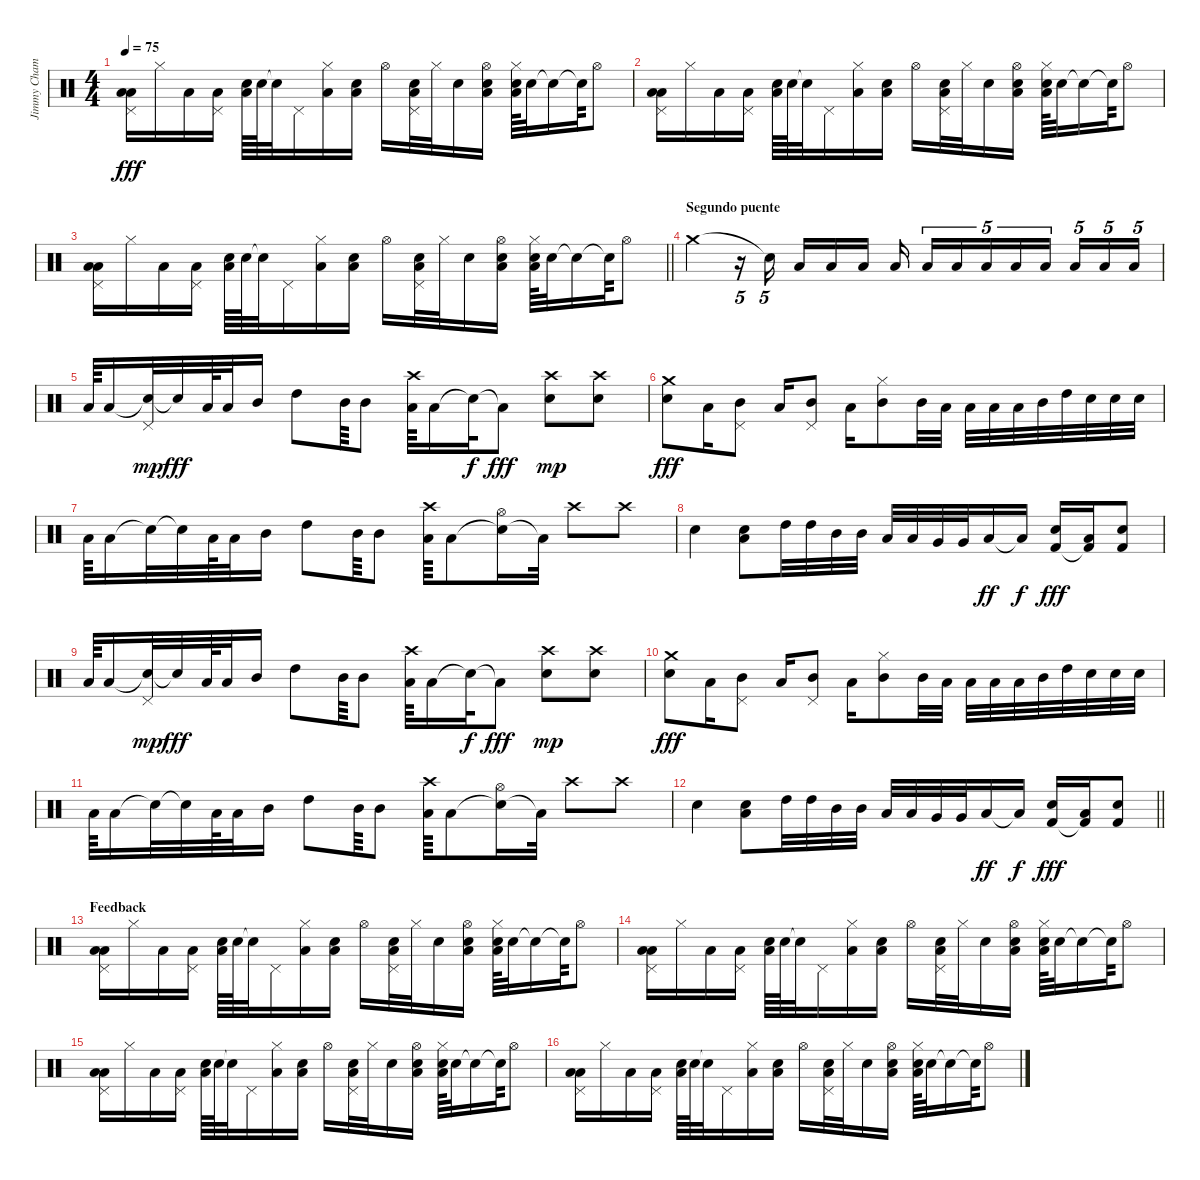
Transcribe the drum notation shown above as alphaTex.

\track ("Jimmy Chamberlin" "Jimmy Cham") {instrument percussion}
\staff {score}
\articulation defaults
\ts (4 4)
\tempo 75
\clef neutral
\ks c
("Low Floor Tom (hit)" "Low Tom (hit)" "Pedal Hi-Hat (hit)").16{dy fff} "Hi-Hat (closed)".16 "Low Floor Tom (hit)".16 ("Low Floor Tom (hit)" "Pedal Hi-Hat (hit)").16 ("Low Floor Tom (hit)" "Electric Snare (hit)").64 "Electric Snare (hit)".64 "Snare (hit)"{t}.32 "Pedal Hi-Hat (hit)".16 ("Low Floor Tom (hit)" "Hi-Hat (closed)").16 ("Low Floor Tom (hit)" "Electric Snare (hit)").16 "Hi-Hat (open)".16 ("Low Floor Tom (hit)" "Pedal Hi-Hat (hit)" "Electric Snare (hit)").32 "Hi-Hat (closed)".32 "Electric Snare (hit)".16 ("Low Floor Tom (hit)" "Hi-Hat (open)" "Snare (hit) 2").16 ("Low Floor Tom (hit)" "Hi-Hat (closed)" "Electric Snare (hit)").64 "Electric Snare (hit)".32 "Snare (hit)"{t}.16 "Snare (hit)"{t}.64 "Hi-Hat (open)".8 |
("Low Floor Tom (hit)" "Low Tom (hit)" "Pedal Hi-Hat (hit)").16 "Hi-Hat (closed)".16 "Low Floor Tom (hit)".16 ("Low Floor Tom (hit)" "Pedal Hi-Hat (hit)").16 ("Low Floor Tom (hit)" "Electric Snare (hit)").64 "Electric Snare (hit)".64 "Snare (hit)"{t}.32 "Pedal Hi-Hat (hit)".16 ("Low Floor Tom (hit)" "Hi-Hat (closed)").16 ("Low Floor Tom (hit)" "Electric Snare (hit)").16 "Hi-Hat (open)".16 ("Low Floor Tom (hit)" "Pedal Hi-Hat (hit)" "Electric Snare (hit)").32 "Hi-Hat (closed)".32 "Electric Snare (hit)".16 ("Low Floor Tom (hit)" "Hi-Hat (open)" "Snare (hit) 2").16 ("Low Floor Tom (hit)" "Hi-Hat (closed)" "Electric Snare (hit)").64 "Electric Snare (hit)".32 "Snare (hit)"{t}.16 "Snare (hit)"{t}.64 "Hi-Hat (open)".8 |
\barLineRight lightlight
("Low Floor Tom (hit)" "Low Tom (hit)" "Pedal Hi-Hat (hit)").16 "Hi-Hat (closed)".16 "Low Floor Tom (hit)".16 ("Low Floor Tom (hit)" "Pedal Hi-Hat (hit)").16 ("Low Floor Tom (hit)" "Electric Snare (hit)").64 "Electric Snare (hit)".64 "Snare (hit)"{t}.32 "Pedal Hi-Hat (hit)".16 ("Low Floor Tom (hit)" "Hi-Hat (closed)").16 ("Low Floor Tom (hit)" "Electric Snare (hit)").16 "Hi-Hat (open)".16 ("Low Floor Tom (hit)" "Pedal Hi-Hat (hit)" "Electric Snare (hit)").32 "Hi-Hat (closed)".32 "Electric Snare (hit)".16 ("Low Floor Tom (hit)" "Hi-Hat (open)" "Snare (hit) 2").16 ("Low Floor Tom (hit)" "Hi-Hat (closed)" "Electric Snare (hit)").64 "Electric Snare (hit)".32 "Snare (hit)"{t}.16 "Snare (hit)"{t}.64 "Hi-Hat (open)".8 |
\section ("" "Segundo puente")
"Crash medium (hit)".4 r.16{tu (5 4)} "Snare (hit)"{t}.16{tu (5 4) beam splitsecondary} "Low Floor Tom (hit)".16 "Low Floor Tom (hit)".16 "Low Floor Tom (hit)".16 "Low Floor Tom (hit)".16{beam splitsecondary} "Low Floor Tom (hit)".16{tu (5 4)} "Low Floor Tom (hit)".16{tu (5 4)} "Low Floor Tom (hit)".16{tu (5 4)} "Low Floor Tom (hit)".16{tu (5 4)} "Low Floor Tom (hit)".16{tu (5 4) beam splitsecondary} "Low Floor Tom (hit)".16{tu (5 4)} "Low Floor Tom (hit)".16{tu (5 4)} "Low Floor Tom (hit)".16{tu (5 4)} |
"Low Tom (hit)".64 "Low Tom (hit)".16 ("Snare (hit)"{t} "Pedal Hi-Hat (hit)").32{dy mp} "Snare (hit)"{t}.32{dy fff} "Low Tom (hit)".64 "Low Tom (hit)".32 "Mid Tom (hit)".16 "High Tom (hit)".8 "Mid Tom (hit)".64 "Mid Tom (hit)".8 ("Low Tom (hit)" "Crash high (hit)").64 "Low Tom (hit)".16 "Snare (hit)"{t}.32{dy f} "Low Tom (hit)"{t}.8{dy fff} ("Crash high (hit)" "Electric Snare (hit)").8{dy mp} ("Crash high (hit)" "Electric Snare (hit)").8 |
("Snare (hit) 2" "Crash medium (hit)").8{dy fff} "Low Tom (hit)".16 ("Mid Tom (hit)" "Pedal Hi-Hat (hit)").8 "Low Tom (hit)".16 ("Mid Tom (hit)" "Pedal Hi-Hat (hit)").8 "Low Tom (hit)".16 ("Mid Tom (hit)" "Hi-Hat (closed)").8 "Mid Tom (hit)".32 "Low Tom (hit)".32 "Low Tom (hit)".32 "Low Tom (hit)".32 "Low Tom (hit)".32 "Mid Tom (hit)".32 "High Tom (hit)".32 "Snare (hit) 2".32 "Snare (hit) 2".32 "Snare (hit) 2".32 |
"Low Tom (hit)".64 "Low Tom (hit)".16 "Snare (hit)"{t}.32 "Snare (hit)"{t}.32 "Low Tom (hit)".64 "Low Tom (hit)".32 "Mid Tom (hit)".16 "High Tom (hit)".8 "Mid Tom (hit)".64 "Mid Tom (hit)".8 ("Low Tom (hit)" "Crash high (hit)").64 "Low Tom (hit)".8 ("Snare (hit)"{t} "Hi-Hat (open)").16 "Low Tom (hit)"{t}.32 "Crash high (hit)".8 "Crash high (hit)".8 |
"Snare (hit) 2".4 ("Snare (hit) 2" "Low Floor Tom (hit)").8 "High Tom (hit)".32 "High Tom (hit)".32 "Mid Tom (hit)".32 "Mid Tom (hit)".32 "Low Tom (hit)".32 "Low Tom (hit)".32 "Very Low Tom (hit)".32 "Very Low Tom (hit)".32 "Low Floor Tom (hit)".16{dy ff} "Low Floor Tom (hit)"{t}.16{dy f} ("Electric Snare (hit)" "Kick (hit) 2").16{dy fff} ("Low Floor Tom (hit)" "Kick (hit) 2"{t}).16 ("Electric Snare (hit)" "Kick (hit) 2").8 |
"Low Tom (hit)".64 "Low Tom (hit)".16 ("Snare (hit)"{t} "Pedal Hi-Hat (hit)").32{dy mp} "Snare (hit)"{t}.32{dy fff} "Low Tom (hit)".64 "Low Tom (hit)".32 "Mid Tom (hit)".16 "High Tom (hit)".8 "Mid Tom (hit)".64 "Mid Tom (hit)".8 ("Low Tom (hit)" "Crash high (hit)").64 "Low Tom (hit)".16 "Snare (hit)"{t}.32{dy f} "Low Tom (hit)"{t}.8{dy fff} ("Crash high (hit)" "Electric Snare (hit)").8{dy mp} ("Crash high (hit)" "Electric Snare (hit)").8 |
("Snare (hit) 2" "Crash medium (hit)").8{dy fff} "Low Tom (hit)".16 ("Mid Tom (hit)" "Pedal Hi-Hat (hit)").8 "Low Tom (hit)".16 ("Mid Tom (hit)" "Pedal Hi-Hat (hit)").8 "Low Tom (hit)".16 ("Mid Tom (hit)" "Hi-Hat (closed)").8 "Mid Tom (hit)".32 "Low Tom (hit)".32 "Low Tom (hit)".32 "Low Tom (hit)".32 "Low Tom (hit)".32 "Mid Tom (hit)".32 "High Tom (hit)".32 "Snare (hit) 2".32 "Snare (hit) 2".32 "Snare (hit) 2".32 |
"Low Tom (hit)".64 "Low Tom (hit)".16 "Snare (hit)"{t}.32 "Snare (hit)"{t}.32 "Low Tom (hit)".64 "Low Tom (hit)".32 "Mid Tom (hit)".16 "High Tom (hit)".8 "Mid Tom (hit)".64 "Mid Tom (hit)".8 ("Low Tom (hit)" "Crash high (hit)").64 "Low Tom (hit)".8 ("Snare (hit)"{t} "Hi-Hat (open)").16 "Low Tom (hit)"{t}.32 "Crash high (hit)".8 "Crash high (hit)".8 |
\barLineRight lightlight "Snare (hit) 2".4
("Snare (hit) 2" "Low Floor Tom (hit)").8 "High Tom (hit)".32 "High Tom (hit)".32 "Mid Tom (hit)".32 "Mid Tom (hit)".32 "Low Tom (hit)".32 "Low Tom (hit)".32 "Very Low Tom (hit)".32 "Very Low Tom (hit)".32 "Low Floor Tom (hit)".16{dy ff} "Low Floor Tom (hit)"{t}.16{dy f} ("Electric Snare (hit)" "Kick (hit) 2").16{dy fff} ("Low Floor Tom (hit)" "Kick (hit) 2"{t}).16 ("Electric Snare (hit)" "Kick (hit) 2").8 |
\section ("" "Feedback")
("Low Floor Tom (hit)" "Low Tom (hit)" "Pedal Hi-Hat (hit)").16 "Hi-Hat (closed)".16 "Low Floor Tom (hit)".16 ("Low Floor Tom (hit)" "Pedal Hi-Hat (hit)").16 ("Low Floor Tom (hit)" "Electric Snare (hit)").64 "Electric Snare (hit)".64 "Snare (hit)"{t}.32 "Pedal Hi-Hat (hit)".16 ("Low Floor Tom (hit)" "Hi-Hat (closed)").16 ("Low Floor Tom (hit)" "Electric Snare (hit)").16 "Hi-Hat (open)".16 ("Low Floor Tom (hit)" "Pedal Hi-Hat (hit)" "Electric Snare (hit)").32 "Hi-Hat (closed)".32 "Electric Snare (hit)".16 ("Low Floor Tom (hit)" "Hi-Hat (open)" "Snare (hit) 2").16 ("Low Floor Tom (hit)" "Hi-Hat (closed)" "Electric Snare (hit)").64 "Electric Snare (hit)".32 "Snare (hit)"{t}.16 "Snare (hit)"{t}.64 "Hi-Hat (open)".8 |
("Low Floor Tom (hit)" "Low Tom (hit)" "Pedal Hi-Hat (hit)").16 "Hi-Hat (closed)".16 "Low Floor Tom (hit)".16 ("Low Floor Tom (hit)" "Pedal Hi-Hat (hit)").16 ("Low Floor Tom (hit)" "Electric Snare (hit)").64 "Electric Snare (hit)".64 "Snare (hit)"{t}.32 "Pedal Hi-Hat (hit)".16 ("Low Floor Tom (hit)" "Hi-Hat (closed)").16 ("Low Floor Tom (hit)" "Electric Snare (hit)").16 "Hi-Hat (open)".16 ("Low Floor Tom (hit)" "Pedal Hi-Hat (hit)" "Electric Snare (hit)").32 "Hi-Hat (closed)".32 "Electric Snare (hit)".16 ("Low Floor Tom (hit)" "Hi-Hat (open)" "Snare (hit) 2").16 ("Low Floor Tom (hit)" "Hi-Hat (closed)" "Electric Snare (hit)").64 "Electric Snare (hit)".32 "Snare (hit)"{t}.16 "Snare (hit)"{t}.64 "Hi-Hat (open)".8 |
("Low Floor Tom (hit)" "Low Tom (hit)" "Pedal Hi-Hat (hit)").16 "Hi-Hat (closed)".16 "Low Floor Tom (hit)".16 ("Low Floor Tom (hit)" "Pedal Hi-Hat (hit)").16 ("Low Floor Tom (hit)" "Electric Snare (hit)").64 "Electric Snare (hit)".64 "Snare (hit)"{t}.32 "Pedal Hi-Hat (hit)".16 ("Low Floor Tom (hit)" "Hi-Hat (closed)").16 ("Low Floor Tom (hit)" "Electric Snare (hit)").16 "Hi-Hat (open)".16 ("Low Floor Tom (hit)" "Pedal Hi-Hat (hit)" "Electric Snare (hit)").32 "Hi-Hat (closed)".32 "Electric Snare (hit)".16 ("Low Floor Tom (hit)" "Hi-Hat (open)" "Snare (hit) 2").16 ("Low Floor Tom (hit)" "Hi-Hat (closed)" "Electric Snare (hit)").64 "Electric Snare (hit)".32 "Snare (hit)"{t}.16 "Snare (hit)"{t}.64 "Hi-Hat (open)".8 |
("Low Floor Tom (hit)" "Low Tom (hit)" "Pedal Hi-Hat (hit)").16 "Hi-Hat (closed)".16 "Low Floor Tom (hit)".16 ("Low Floor Tom (hit)" "Pedal Hi-Hat (hit)").16 ("Low Floor Tom (hit)" "Electric Snare (hit)").64 "Electric Snare (hit)".64 "Snare (hit)"{t}.32 "Pedal Hi-Hat (hit)".16 ("Low Floor Tom (hit)" "Hi-Hat (closed)").16 ("Low Floor Tom (hit)" "Electric Snare (hit)").16 "Hi-Hat (open)".16 ("Low Floor Tom (hit)" "Pedal Hi-Hat (hit)" "Electric Snare (hit)").32 "Hi-Hat (closed)".32 "Electric Snare (hit)".16 ("Low Floor Tom (hit)" "Hi-Hat (open)" "Snare (hit) 2").16 ("Low Floor Tom (hit)" "Hi-Hat (closed)" "Electric Snare (hit)").64 "Electric Snare (hit)".32 "Snare (hit)"{t}.16 "Snare (hit)"{t}.64 "Hi-Hat (open)".8
